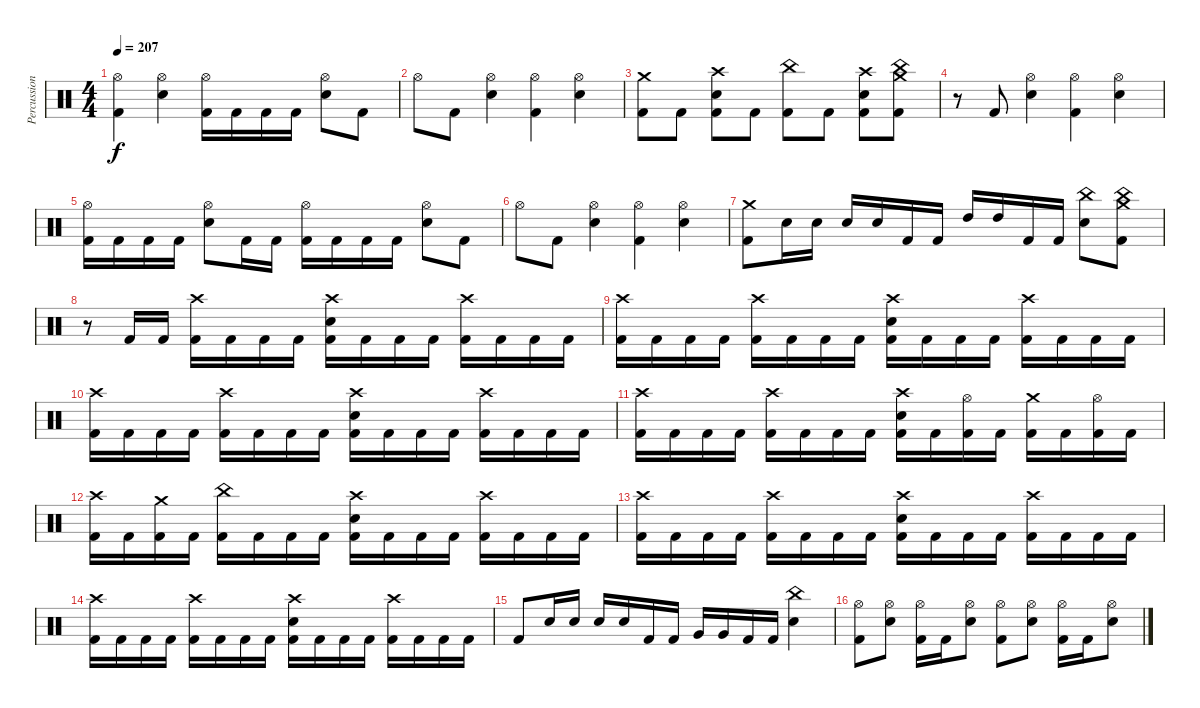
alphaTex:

\track ("Percussion" "Percussion") {instrument percussion}
\staff {score}
\articulation defaults
\ts (4 4)
\tempo 207
\clef neutral
\ks c
("Hi-Hat (open)" "Kick (hit) 2").4{dy f} ("Hi-Hat (open)" "Electric Snare (hit)").4 ("Hi-Hat (open)" "Kick (hit) 2").16 "Kick (hit) 2".16 "Kick (hit) 2".16 "Kick (hit) 2".16 ("Hi-Hat (open)" "Electric Snare (hit)").8 "Kick (hit) 2".8 |
"Hi-Hat (open)".8 "Kick (hit) 2".8 ("Hi-Hat (open)" "Electric Snare (hit)").4 ("Hi-Hat (open)" "Kick (hit) 2").4 ("Hi-Hat (open)" "Electric Snare (hit)").4 |
("Crash medium (hit)" "Kick (hit) 2").8 "Kick (hit) 2".8 ("Crash high (hit)" "Electric Snare (hit)" "Kick (hit) 2").8 "Kick (hit) 2".8 ("China (hit)" "Kick (hit) 2").8 "Kick (hit) 2".8 ("Crash high (hit)" "Electric Snare (hit)" "Kick (hit) 2").8 ("Crash medium (hit)" "China (hit)" "Kick (hit) 2").8 |
r.8 "Kick (hit) 2".8 ("Hi-Hat (open)" "Electric Snare (hit)").4 ("Hi-Hat (open)" "Kick (hit) 2").4 ("Hi-Hat (open)" "Electric Snare (hit)").4 |
("Hi-Hat (open)" "Kick (hit) 2").16 "Kick (hit) 2".16 "Kick (hit) 2".16 "Kick (hit) 2".16 ("Hi-Hat (open)" "Electric Snare (hit)").8 "Kick (hit) 2".16 "Kick (hit) 2".16 ("Hi-Hat (open)" "Kick (hit) 2").16 "Kick (hit) 2".16 "Kick (hit) 2".16 "Kick (hit) 2".16 ("Hi-Hat (open)" "Electric Snare (hit)").8 "Kick (hit) 2".8 |
"Hi-Hat (open)".8 "Kick (hit) 2".8 ("Hi-Hat (open)" "Electric Snare (hit)").4 ("Hi-Hat (open)" "Kick (hit) 2").4 ("Hi-Hat (open)" "Electric Snare (hit)").4 |
("Crash medium (hit)" "Kick (hit) 2").8 "Electric Snare (hit)".16 "Electric Snare (hit)".16 "Electric Snare (hit)".16 "Electric Snare (hit)".16 "Kick (hit) 2".16 "Kick (hit) 2".16 "High Tom (hit)".16 "High Tom (hit)".16 "Kick (hit) 2".16 "Kick (hit) 2".16 ("China (hit)" "Electric Snare (hit)").8 ("China (hit)" "Crash medium (hit)" "Kick (hit) 2").8 |
r.8 "Kick (hit) 2".16 "Kick (hit) 2".16 ("Crash high (hit)" "Kick (hit) 2").16 "Kick (hit) 2".16 "Kick (hit) 2".16 "Kick (hit) 2".16 ("Crash high (hit)" "Electric Snare (hit)" "Kick (hit) 2").16 "Kick (hit) 2".16 "Kick (hit) 2".16 "Kick (hit) 2".16 ("Crash high (hit)" "Kick (hit) 2").16 "Kick (hit) 2".16 "Kick (hit) 2".16 "Kick (hit) 2".16 |
("Crash high (hit)" "Kick (hit) 2").16 "Kick (hit) 2".16 "Kick (hit) 2".16 "Kick (hit) 2".16 ("Crash high (hit)" "Kick (hit) 2").16 "Kick (hit) 2".16 "Kick (hit) 2".16 "Kick (hit) 2".16 ("Crash high (hit)" "Electric Snare (hit)" "Kick (hit) 2").16 "Kick (hit) 2".16 "Kick (hit) 2".16 "Kick (hit) 2".16 ("Crash high (hit)" "Kick (hit) 2").16 "Kick (hit) 2".16 "Kick (hit) 2".16 "Kick (hit) 2".16 |
("Crash high (hit)" "Kick (hit) 2").16 "Kick (hit) 2".16 "Kick (hit) 2".16 "Kick (hit) 2".16 ("Crash high (hit)" "Kick (hit) 2").16 "Kick (hit) 2".16 "Kick (hit) 2".16 "Kick (hit) 2".16 ("Crash high (hit)" "Electric Snare (hit)" "Kick (hit) 2").16 "Kick (hit) 2".16 "Kick (hit) 2".16 "Kick (hit) 2".16 ("Crash high (hit)" "Kick (hit) 2").16 "Kick (hit) 2".16 "Kick (hit) 2".16 "Kick (hit) 2".16 |
("Crash high (hit)" "Kick (hit) 2").16 "Kick (hit) 2".16 "Kick (hit) 2".16 "Kick (hit) 2".16 ("Crash high (hit)" "Kick (hit) 2").16 "Kick (hit) 2".16 "Kick (hit) 2".16 "Kick (hit) 2".16 ("Crash high (hit)" "Electric Snare (hit)" "Kick (hit) 2").16 "Kick (hit) 2".16 ("Hi-Hat (open)" "Kick (hit) 2").16 "Kick (hit) 2".16 ("Crash medium (hit)" "Kick (hit) 2").16 "Kick (hit) 2".16 ("Hi-Hat (open)" "Kick (hit) 2").16 "Kick (hit) 2".16 |
("Crash high (hit)" "Kick (hit) 2").16 "Kick (hit) 2".16 ("Crash medium (hit)" "Kick (hit) 2").16 "Kick (hit) 2".16 ("China (hit)" "Kick (hit) 2").16 "Kick (hit) 2".16 "Kick (hit) 2".16 "Kick (hit) 2".16 ("Crash high (hit)" "Electric Snare (hit)" "Kick (hit) 2").16 "Kick (hit) 2".16 "Kick (hit) 2".16 "Kick (hit) 2".16 ("Crash high (hit)" "Kick (hit) 2").16 "Kick (hit) 2".16 "Kick (hit) 2".16 "Kick (hit) 2".16 |
("Crash high (hit)" "Kick (hit) 2").16 "Kick (hit) 2".16 "Kick (hit) 2".16 "Kick (hit) 2".16 ("Crash high (hit)" "Kick (hit) 2").16 "Kick (hit) 2".16 "Kick (hit) 2".16 "Kick (hit) 2".16 ("Crash high (hit)" "Electric Snare (hit)" "Kick (hit) 2").16 "Kick (hit) 2".16 "Kick (hit) 2".16 "Kick (hit) 2".16 ("Crash high (hit)" "Kick (hit) 2").16 "Kick (hit) 2".16 "Kick (hit) 2".16 "Kick (hit) 2".16 |
("Crash high (hit)" "Kick (hit) 2").16 "Kick (hit) 2".16 "Kick (hit) 2".16 "Kick (hit) 2".16 ("Crash high (hit)" "Kick (hit) 2").16 "Kick (hit) 2".16 "Kick (hit) 2".16 "Kick (hit) 2".16 ("Crash high (hit)" "Electric Snare (hit)" "Kick (hit) 2").16 "Kick (hit) 2".16 "Kick (hit) 2".16 "Kick (hit) 2".16 ("Crash high (hit)" "Kick (hit) 2").16 "Kick (hit) 2".16 "Kick (hit) 2".16 "Kick (hit) 2".16 |
"Kick (hit) 2".8 "Electric Snare (hit)".16 "Electric Snare (hit)".16 "Electric Snare (hit)".16 "Electric Snare (hit)".16 "Kick (hit) 2".16 "Kick (hit) 2".16 "Very Low Tom (hit)".16 "Very Low Tom (hit)".16 "Kick (hit) 2".16 "Kick (hit) 2".16 ("China (hit)" "Electric Snare (hit)").4 |
("Hi-Hat (open)" "Kick (hit) 2").8 ("Hi-Hat (open)" "Electric Snare (hit)").8 ("Hi-Hat (open)" "Kick (hit) 2").16 "Kick (hit) 2".16 ("Hi-Hat (open)" "Electric Snare (hit)").8 ("Hi-Hat (open)" "Kick (hit) 2").8 ("Hi-Hat (open)" "Electric Snare (hit)").8 ("Hi-Hat (open)" "Kick (hit) 2").16 "Kick (hit) 2".16 ("Hi-Hat (open)" "Electric Snare (hit)").8
